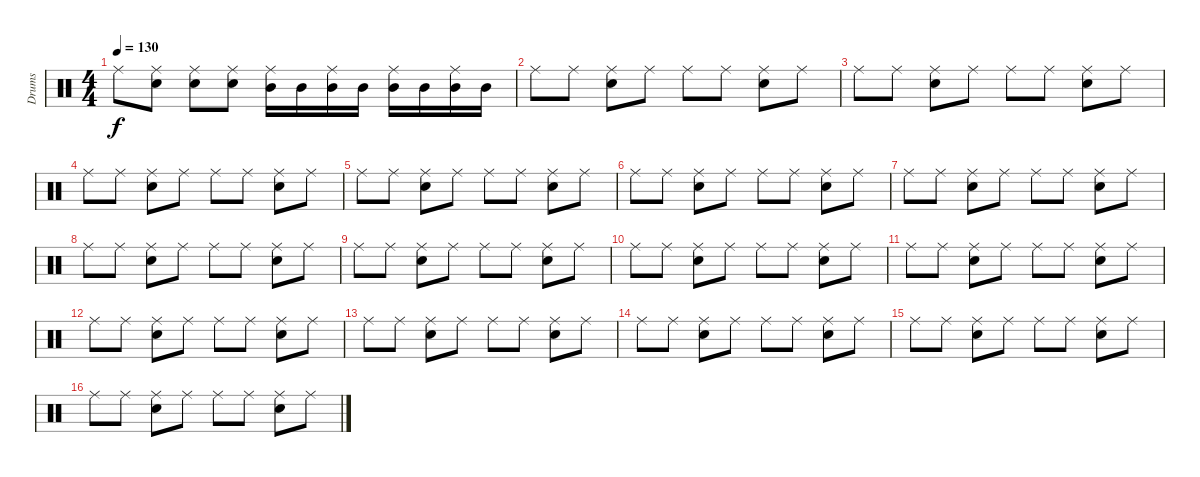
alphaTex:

\track ("Drums" "Drums") {instrument percussion}
\staff {score}
\articulation defaults
\ts (4 4)
\tempo 130
\clef neutral
\ks c "Ride (middle)".8{dy f}
("Ride (middle)" "Snare (hit) 2").8 ("Ride (middle)" "Snare (hit) 2").8 ("Ride (middle)" "Snare (hit) 2").8 ("Ride (middle)" "Mid Tom (hit)").16 "Mid Tom (hit)".16 ("Ride (middle)" "Mid Tom (hit)").16 "Mid Tom (hit)".16 ("Ride (middle)" "Mid Tom (hit)").16 "Mid Tom (hit)".16 ("Ride (middle)" "Mid Tom (hit)").16 "Mid Tom (hit)".16 |
"Ride (middle)".8 "Ride (middle)".8 ("Ride (middle)" "Snare (hit) 2").8 "Ride (middle)".8 "Ride (middle)".8 "Ride (middle)".8 ("Ride (middle)" "Snare (hit) 2").8 "Ride (middle)".8 |
"Ride (middle)".8 "Ride (middle)".8 ("Ride (middle)" "Snare (hit) 2").8 "Ride (middle)".8 "Ride (middle)".8 "Ride (middle)".8 ("Ride (middle)" "Snare (hit) 2").8 "Ride (middle)".8 |
"Ride (middle)".8 "Ride (middle)".8 ("Ride (middle)" "Snare (hit) 2").8 "Ride (middle)".8 "Ride (middle)".8 "Ride (middle)".8 ("Ride (middle)" "Snare (hit) 2").8 "Ride (middle)".8 |
"Ride (middle)".8 "Ride (middle)".8 ("Ride (middle)" "Snare (hit) 2").8 "Ride (middle)".8 "Ride (middle)".8 "Ride (middle)".8 ("Ride (middle)" "Snare (hit) 2").8 "Ride (middle)".8 |
"Ride (middle)".8 "Ride (middle)".8 ("Ride (middle)" "Snare (hit) 2").8 "Ride (middle)".8 "Ride (middle)".8 "Ride (middle)".8 ("Ride (middle)" "Snare (hit) 2").8 "Ride (middle)".8 |
"Ride (middle)".8 "Ride (middle)".8 ("Ride (middle)" "Snare (hit) 2").8 "Ride (middle)".8 "Ride (middle)".8 "Ride (middle)".8 ("Ride (middle)" "Snare (hit) 2").8 "Ride (middle)".8 |
"Ride (middle)".8 "Ride (middle)".8 ("Ride (middle)" "Snare (hit) 2").8 "Ride (middle)".8 "Ride (middle)".8 "Ride (middle)".8 ("Ride (middle)" "Snare (hit) 2").8 "Ride (middle)".8 |
"Ride (middle)".8 "Ride (middle)".8 ("Ride (middle)" "Snare (hit) 2").8 "Ride (middle)".8 "Ride (middle)".8 "Ride (middle)".8 ("Ride (middle)" "Snare (hit) 2").8 "Ride (middle)".8 |
"Ride (middle)".8 "Ride (middle)".8 ("Ride (middle)" "Snare (hit) 2").8 "Ride (middle)".8 "Ride (middle)".8 "Ride (middle)".8 ("Ride (middle)" "Snare (hit) 2").8 "Ride (middle)".8 |
"Ride (middle)".8 "Ride (middle)".8 ("Ride (middle)" "Snare (hit) 2").8 "Ride (middle)".8 "Ride (middle)".8 "Ride (middle)".8 ("Ride (middle)" "Snare (hit) 2").8 "Ride (middle)".8 |
"Ride (middle)".8 "Ride (middle)".8 ("Ride (middle)" "Snare (hit) 2").8 "Ride (middle)".8 "Ride (middle)".8 "Ride (middle)".8 ("Ride (middle)" "Snare (hit) 2").8 "Ride (middle)".8 |
"Ride (middle)".8 "Ride (middle)".8 ("Ride (middle)" "Snare (hit) 2").8 "Ride (middle)".8 "Ride (middle)".8 "Ride (middle)".8 ("Ride (middle)" "Snare (hit) 2").8 "Ride (middle)".8 |
"Ride (middle)".8 "Ride (middle)".8 ("Ride (middle)" "Snare (hit) 2").8 "Ride (middle)".8 "Ride (middle)".8 "Ride (middle)".8 ("Ride (middle)" "Snare (hit) 2").8 "Ride (middle)".8 |
"Ride (middle)".8 "Ride (middle)".8 ("Ride (middle)" "Snare (hit) 2").8 "Ride (middle)".8 "Ride (middle)".8 "Ride (middle)".8 ("Ride (middle)" "Snare (hit) 2").8 "Ride (middle)".8 |
"Ride (middle)".8 "Ride (middle)".8 ("Ride (middle)" "Snare (hit) 2").8 "Ride (middle)".8 "Ride (middle)".8 "Ride (middle)".8 ("Ride (middle)" "Snare (hit) 2").8 "Ride (middle)".8
